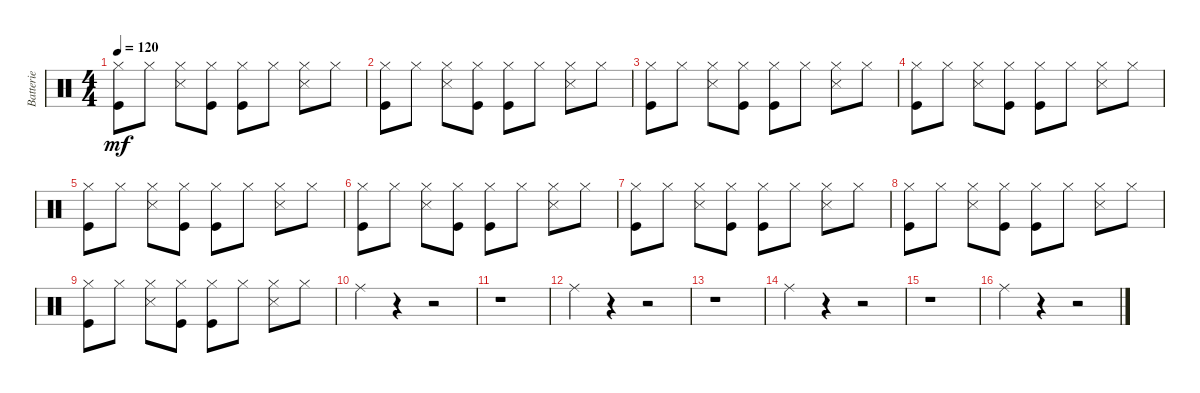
\track ("Batterie" "Batterie") {instrument percussion}
\staff {score}
\articulation defaults
\ts (4 4)
\tempo 120
\clef neutral
\ks c
("Hi-Hat (closed)" "Kick (hit)").8{dy mf} "Hi-Hat (closed)".8 ("Hi-Hat (closed)" "Snare (side stick) 3").8 ("Hi-Hat (closed)" "Kick (hit)").8 ("Hi-Hat (closed)" "Kick (hit)").8 "Hi-Hat (closed)".8 ("Hi-Hat (closed)" "Snare (side stick) 3").8 "Hi-Hat (closed)".8 |
("Hi-Hat (closed)" "Kick (hit)").8 "Hi-Hat (closed)".8 ("Hi-Hat (closed)" "Snare (side stick) 3").8 ("Hi-Hat (closed)" "Kick (hit)").8 ("Hi-Hat (closed)" "Kick (hit)").8 "Hi-Hat (closed)".8 ("Hi-Hat (closed)" "Snare (side stick) 3").8 "Hi-Hat (closed)".8 |
("Hi-Hat (closed)" "Kick (hit)").8 "Hi-Hat (closed)".8 ("Hi-Hat (closed)" "Snare (side stick) 3").8 ("Hi-Hat (closed)" "Kick (hit)").8 ("Hi-Hat (closed)" "Kick (hit)").8 "Hi-Hat (closed)".8 ("Hi-Hat (closed)" "Snare (side stick) 3").8 "Hi-Hat (closed)".8 |
("Hi-Hat (closed)" "Kick (hit)").8 "Hi-Hat (closed)".8 ("Hi-Hat (closed)" "Snare (side stick) 3").8 ("Hi-Hat (closed)" "Kick (hit)").8 ("Hi-Hat (closed)" "Kick (hit)").8 "Hi-Hat (closed)".8 ("Hi-Hat (closed)" "Snare (side stick) 3").8 "Hi-Hat (closed)".8 |
("Hi-Hat (closed)" "Kick (hit)").8 "Hi-Hat (closed)".8 ("Hi-Hat (closed)" "Snare (side stick) 3").8 ("Hi-Hat (closed)" "Kick (hit)").8 ("Hi-Hat (closed)" "Kick (hit)").8 "Hi-Hat (closed)".8 ("Hi-Hat (closed)" "Snare (side stick) 3").8 "Hi-Hat (closed)".8 |
("Hi-Hat (closed)" "Kick (hit)").8 "Hi-Hat (closed)".8 ("Hi-Hat (closed)" "Snare (side stick) 3").8 ("Hi-Hat (closed)" "Kick (hit)").8 ("Hi-Hat (closed)" "Kick (hit)").8 "Hi-Hat (closed)".8 ("Hi-Hat (closed)" "Snare (side stick) 3").8 "Hi-Hat (closed)".8 |
("Hi-Hat (closed)" "Kick (hit)").8 "Hi-Hat (closed)".8 ("Hi-Hat (closed)" "Snare (side stick) 3").8 ("Hi-Hat (closed)" "Kick (hit)").8 ("Hi-Hat (closed)" "Kick (hit)").8 "Hi-Hat (closed)".8 ("Hi-Hat (closed)" "Snare (side stick) 3").8 "Hi-Hat (closed)".8 |
("Hi-Hat (closed)" "Kick (hit)").8 "Hi-Hat (closed)".8 ("Hi-Hat (closed)" "Snare (side stick) 3").8 ("Hi-Hat (closed)" "Kick (hit)").8 ("Hi-Hat (closed)" "Kick (hit)").8 "Hi-Hat (closed)".8 ("Hi-Hat (closed)" "Snare (side stick) 3").8 "Hi-Hat (closed)".8 |
("Hi-Hat (closed)" "Kick (hit)").8 "Hi-Hat (closed)".8 ("Hi-Hat (closed)" "Snare (side stick) 3").8 ("Hi-Hat (closed)" "Kick (hit)").8 ("Hi-Hat (closed)" "Kick (hit)").8 "Hi-Hat (closed)".8 ("Hi-Hat (closed)" "Snare (side stick) 3").8 "Hi-Hat (closed)".8 |
"Ride (middle)".4 r.4 r.2 |
r.1 |
"Ride (middle)".4 r.4 r.2 |
r.1 |
"Ride (middle)".4 r.4 r.2 |
r.1 |
"Ride (middle)".4 r.4 r.2
